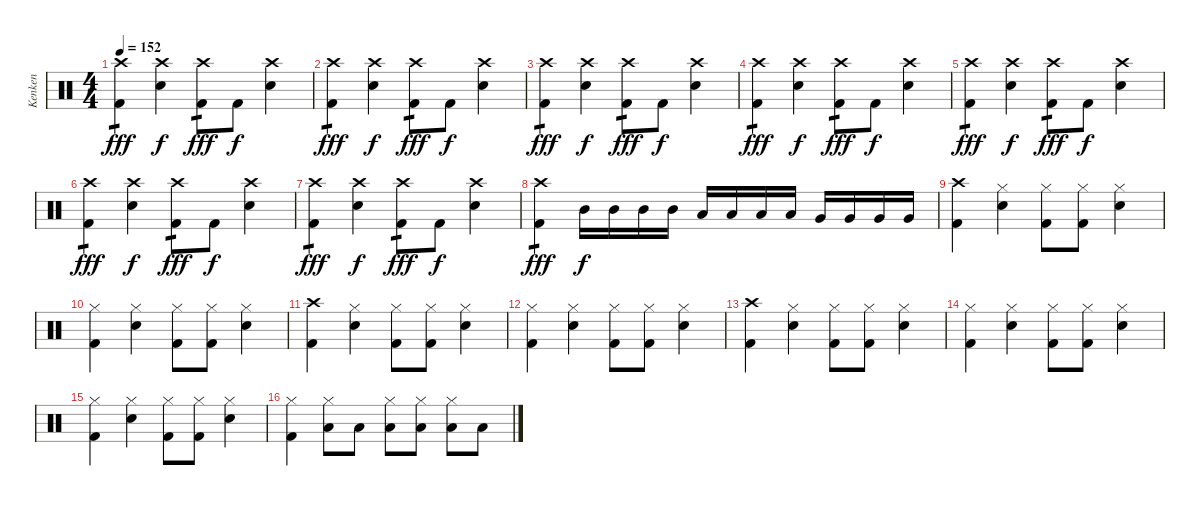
\track ("Kenken" "Kenken") {instrument percussion}
\staff {score}
\articulation defaults
\ts (4 4)
\tempo 152
\clef neutral
\ks c
("Crash high (hit)" "Kick (hit) 2").4{tp 1 dy fff} ("Crash high (hit)" "Electric Snare (hit)").4{dy f} ("Crash high (hit)" "Kick (hit) 2").8{tp 1 dy fff} "Kick (hit) 2".8{dy f} ("Crash high (hit)" "Electric Snare (hit)").4 |
("Crash high (hit)" "Kick (hit) 2").4{tp 1 dy fff} ("Crash high (hit)" "Electric Snare (hit)").4{dy f} ("Crash high (hit)" "Kick (hit) 2").8{tp 1 dy fff} "Kick (hit) 2".8{dy f} ("Crash high (hit)" "Electric Snare (hit)").4 |
("Crash high (hit)" "Kick (hit) 2").4{tp 1 dy fff} ("Crash high (hit)" "Electric Snare (hit)").4{dy f} ("Crash high (hit)" "Kick (hit) 2").8{tp 1 dy fff} "Kick (hit) 2".8{dy f} ("Crash high (hit)" "Electric Snare (hit)").4 |
("Crash high (hit)" "Kick (hit) 2").4{tp 1 dy fff} ("Crash high (hit)" "Electric Snare (hit)").4{dy f} ("Crash high (hit)" "Kick (hit) 2").8{tp 1 dy fff} "Kick (hit) 2".8{dy f} ("Crash high (hit)" "Electric Snare (hit)").4 |
("Crash high (hit)" "Kick (hit) 2").4{tp 1 dy fff} ("Crash high (hit)" "Electric Snare (hit)").4{dy f} ("Crash high (hit)" "Kick (hit) 2").8{tp 1 dy fff} "Kick (hit) 2".8{dy f} ("Crash high (hit)" "Electric Snare (hit)").4 |
("Crash high (hit)" "Kick (hit) 2").4{tp 1 dy fff} ("Crash high (hit)" "Electric Snare (hit)").4{dy f} ("Crash high (hit)" "Kick (hit) 2").8{tp 1 dy fff} "Kick (hit) 2".8{dy f} ("Crash high (hit)" "Electric Snare (hit)").4 |
("Crash high (hit)" "Kick (hit) 2").4{tp 1 dy fff} ("Crash high (hit)" "Electric Snare (hit)").4{dy f} ("Crash high (hit)" "Kick (hit) 2").8{tp 1 dy fff} "Kick (hit) 2".8{dy f} ("Crash high (hit)" "Electric Snare (hit)").4 |
("Crash high (hit)" "Kick (hit) 2").4{tp 1 dy fff} "Mid Tom (hit)".16{dy f} "Mid Tom (hit)".16 "Mid Tom (hit)".16 "Mid Tom (hit)".16 "Low Tom (hit)".16 "Low Tom (hit)".16 "Low Tom (hit)".16 "Low Tom (hit)".16 "Very Low Tom (hit)".16 "Very Low Tom (hit)".16 "Very Low Tom (hit)".16 "Very Low Tom (hit)".16 |
("Crash high (hit)" "Kick (hit) 2").4 ("Hi-Hat (closed)" "Electric Snare (hit)").4 ("Hi-Hat (closed)" "Kick (hit) 2").8 ("Hi-Hat (closed)" "Kick (hit) 2").8 ("Hi-Hat (closed)" "Electric Snare (hit)").4 |
("Hi-Hat (closed)" "Kick (hit) 2").4 ("Hi-Hat (closed)" "Electric Snare (hit)").4 ("Hi-Hat (closed)" "Kick (hit) 2").8 ("Hi-Hat (closed)" "Kick (hit) 2").8 ("Hi-Hat (closed)" "Electric Snare (hit)").4 |
("Crash high (hit)" "Kick (hit) 2").4 ("Hi-Hat (closed)" "Electric Snare (hit)").4 ("Hi-Hat (closed)" "Kick (hit) 2").8 ("Hi-Hat (closed)" "Kick (hit) 2").8 ("Hi-Hat (closed)" "Electric Snare (hit)").4 |
("Hi-Hat (closed)" "Kick (hit) 2").4 ("Hi-Hat (closed)" "Electric Snare (hit)").4 ("Hi-Hat (closed)" "Kick (hit) 2").8 ("Hi-Hat (closed)" "Kick (hit) 2").8 ("Hi-Hat (closed)" "Electric Snare (hit)").4 |
("Crash high (hit)" "Kick (hit) 2").4 ("Hi-Hat (closed)" "Electric Snare (hit)").4 ("Hi-Hat (closed)" "Kick (hit) 2").8 ("Hi-Hat (closed)" "Kick (hit) 2").8 ("Hi-Hat (closed)" "Electric Snare (hit)").4 |
("Hi-Hat (closed)" "Kick (hit) 2").4 ("Hi-Hat (closed)" "Electric Snare (hit)").4 ("Hi-Hat (closed)" "Kick (hit) 2").8 ("Hi-Hat (closed)" "Kick (hit) 2").8 ("Hi-Hat (closed)" "Electric Snare (hit)").4 |
("Hi-Hat (closed)" "Kick (hit) 2").4 ("Hi-Hat (closed)" "Electric Snare (hit)").4 ("Hi-Hat (closed)" "Kick (hit) 2").8 ("Hi-Hat (closed)" "Kick (hit) 2").8 ("Hi-Hat (closed)" "Electric Snare (hit)").4 |
("Hi-Hat (closed)" "Kick (hit) 2").4 ("Hi-Hat (closed)" "Low Tom (hit)").8 "Low Tom (hit)".8 ("Hi-Hat (closed)" "Low Tom (hit)").8 ("Hi-Hat (closed)" "Low Tom (hit)").8 ("Hi-Hat (closed)" "Low Tom (hit)").8 "Low Tom (hit)".8
